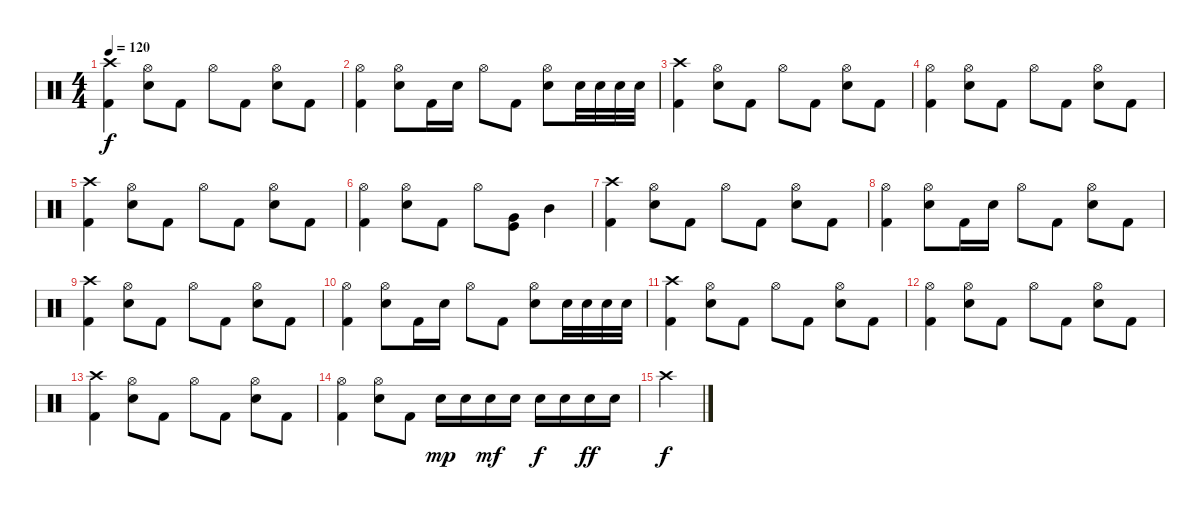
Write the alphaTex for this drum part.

\track "" {instrument percussion}
\staff {score}
\articulation defaults
\ts (4 4)
\tempo 120
\clef neutral
\ks c
("Crash high (hit)" "Kick (hit) 2").4{dy f} ("Hi-Hat (open)" "Snare (hit) 2").8 "Kick (hit) 2".8 "Hi-Hat (open)".8{txt ""} "Kick (hit) 2".8 ("Hi-Hat (open)" "Snare (hit) 2").8 "Kick (hit) 2".8 |
("Hi-Hat (open)" "Kick (hit) 2").4 ("Hi-Hat (open)" "Snare (hit) 2").8 "Kick (hit) 2".16 "Snare (hit) 2".16 "Hi-Hat (open)".8 "Kick (hit) 2".8 ("Hi-Hat (open)" "Snare (hit) 2").8 "Snare (hit) 2".32 "Snare (hit) 2".32 "Snare (hit) 2".32 "Snare (hit) 2".32 |
("Crash high (hit)" "Kick (hit) 2").4 ("Hi-Hat (open)" "Snare (hit) 2").8 "Kick (hit) 2".8 "Hi-Hat (open)".8 "Kick (hit) 2".8 ("Hi-Hat (open)" "Snare (hit) 2").8 "Kick (hit) 2".8 |
("Hi-Hat (open)" "Kick (hit) 2").4 ("Hi-Hat (open)" "Snare (hit) 2").8 "Kick (hit) 2".8 "Hi-Hat (open)".8 "Kick (hit) 2".8 ("Hi-Hat (open)" "Snare (hit) 2").8 "Kick (hit) 2".8 |
("Crash high (hit)" "Kick (hit) 2").4 ("Hi-Hat (open)" "Snare (hit) 2").8 "Kick (hit) 2".8 "Hi-Hat (open)".8 "Kick (hit) 2".8 ("Hi-Hat (open)" "Snare (hit) 2").8 "Kick (hit) 2".8 |
("Hi-Hat (open)" "Kick (hit) 2").4 ("Hi-Hat (open)" "Snare (hit) 2").8 "Kick (hit) 2".8 "Hi-Hat (open)".8 ("Kick (hit)" "Very Low Tom (hit)").8{bd 240} "Mid Tom (hit)".4 |
("Crash high (hit)" "Kick (hit) 2").4 ("Hi-Hat (open)" "Snare (hit) 2").8 "Kick (hit) 2".8 "Hi-Hat (open)".8 "Kick (hit) 2".8 ("Hi-Hat (open)" "Snare (hit) 2").8 "Kick (hit) 2".8 |
("Hi-Hat (open)" "Kick (hit) 2").4 ("Hi-Hat (open)" "Snare (hit) 2").8 "Kick (hit) 2".16 "Snare (hit) 2".16 "Hi-Hat (open)".8 "Kick (hit) 2".8 ("Hi-Hat (open)" "Snare (hit) 2").8 "Kick (hit) 2".8 |
("Crash high (hit)" "Kick (hit) 2").4 ("Hi-Hat (open)" "Snare (hit) 2").8 "Kick (hit) 2".8 "Hi-Hat (open)".8 "Kick (hit) 2".8 ("Hi-Hat (open)" "Snare (hit) 2").8 "Kick (hit) 2".8 |
("Hi-Hat (open)" "Kick (hit) 2").4 ("Hi-Hat (open)" "Snare (hit) 2").8 "Kick (hit) 2".16 "Snare (hit) 2".16 "Hi-Hat (open)".8 "Kick (hit) 2".8 ("Hi-Hat (open)" "Snare (hit) 2").8 "Snare (hit) 2".32 "Snare (hit) 2".32 "Snare (hit) 2".32 "Snare (hit) 2".32 |
("Crash high (hit)" "Kick (hit) 2").4 ("Hi-Hat (open)" "Snare (hit) 2").8 "Kick (hit) 2".8 "Hi-Hat (open)".8 "Kick (hit) 2".8 ("Hi-Hat (open)" "Snare (hit) 2").8 "Kick (hit) 2".8 |
("Hi-Hat (open)" "Kick (hit) 2").4 ("Hi-Hat (open)" "Snare (hit) 2").8 "Kick (hit) 2".8 "Hi-Hat (open)".8 "Kick (hit) 2".8 ("Hi-Hat (open)" "Snare (hit) 2").8 "Kick (hit) 2".8 |
("Crash high (hit)" "Kick (hit) 2").4 ("Hi-Hat (open)" "Snare (hit) 2").8 "Kick (hit) 2".8 "Hi-Hat (open)".8 "Kick (hit) 2".8 ("Hi-Hat (open)" "Snare (hit) 2").8 "Kick (hit) 2".8 |
("Hi-Hat (open)" "Kick (hit) 2").4 ("Hi-Hat (open)" "Snare (hit) 2").8 "Kick (hit) 2".8 "Snare (hit) 2".16{dy mp} "Snare (hit) 2".16 "Snare (hit) 2".16{dy mf} "Snare (hit) 2".16 "Snare (hit) 2".16{dy f} "Snare (hit) 2".16 "Snare (hit) 2".16{dy ff} "Snare (hit) 2".16 |
"Crash high (hit)".4{dy f}
